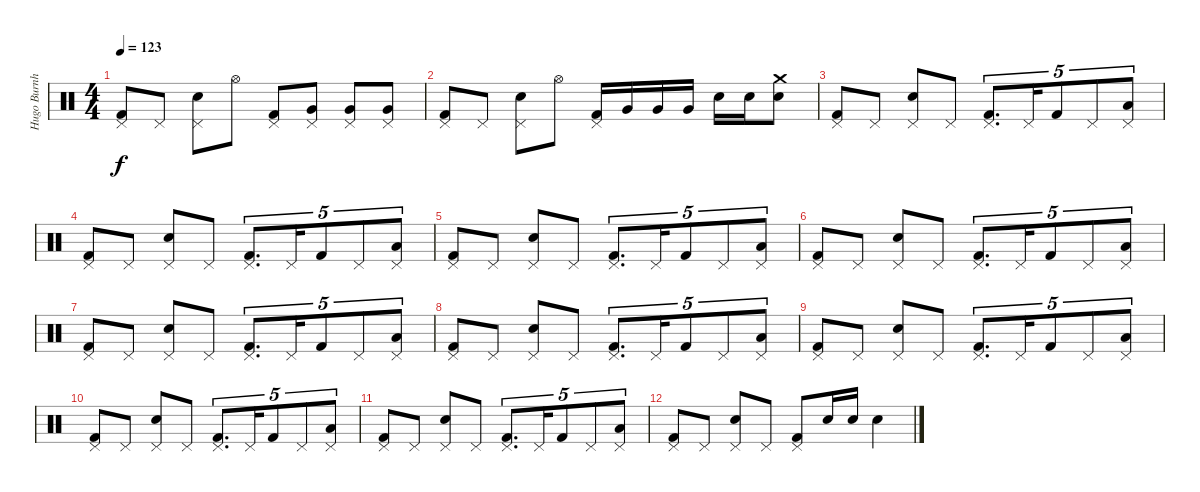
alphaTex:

\track ("Hugo Burnham" "Hugo Burnh") {instrument percussion}
\staff {score}
\articulation defaults
\ts (4 4)
\tempo 123
\clef neutral
\ks c
("Pedal Hi-Hat (hit)" "Kick (hit) 2").8{dy f} "Pedal Hi-Hat (hit)".8 ("Pedal Hi-Hat (hit)" "Electric Snare (hit)").8 "Hi-Hat (open)".8 ("Pedal Hi-Hat (hit)" "Kick (hit) 2").8 ("Pedal Hi-Hat (hit)" "Very Low Tom (hit)").8 ("Pedal Hi-Hat (hit)" "Very Low Tom (hit)").8 ("Pedal Hi-Hat (hit)" "Very Low Tom (hit)").8 |
("Pedal Hi-Hat (hit)" "Kick (hit) 2").8 "Pedal Hi-Hat (hit)".8 ("Pedal Hi-Hat (hit)" "Electric Snare (hit)").8 "Hi-Hat (open)".8 ("Pedal Hi-Hat (hit)" "Kick (hit) 2").16 "Very Low Tom (hit)".16 "Very Low Tom (hit)".16 "Very Low Tom (hit)".16 "Electric Snare (hit)".16 "Electric Snare (hit)".16 ("Crash medium (hit)" "Electric Snare (hit)").8 |
("Pedal Hi-Hat (hit)" "Kick (hit) 2").8 "Pedal Hi-Hat (hit)".8 ("Pedal Hi-Hat (hit)" "Electric Snare (hit)").8 "Pedal Hi-Hat (hit)".8 ("Pedal Hi-Hat (hit)" "Kick (hit) 2").8{d tu (5 4)} "Pedal Hi-Hat (hit)".16{tu (5 4)} "Kick (hit) 2".8{tu (5 4)} "Pedal Hi-Hat (hit)".8{tu (5 4)} ("Pedal Hi-Hat (hit)" "Low Floor Tom (hit)").8{tu (5 4)} |
("Pedal Hi-Hat (hit)" "Kick (hit) 2").8 "Pedal Hi-Hat (hit)".8 ("Pedal Hi-Hat (hit)" "Electric Snare (hit)").8 "Pedal Hi-Hat (hit)".8 ("Pedal Hi-Hat (hit)" "Kick (hit) 2").8{d tu (5 4)} "Pedal Hi-Hat (hit)".16{tu (5 4)} "Kick (hit) 2".8{tu (5 4)} "Pedal Hi-Hat (hit)".8{tu (5 4)} ("Pedal Hi-Hat (hit)" "Low Floor Tom (hit)").8{tu (5 4)} |
("Pedal Hi-Hat (hit)" "Kick (hit) 2").8 "Pedal Hi-Hat (hit)".8 ("Pedal Hi-Hat (hit)" "Electric Snare (hit)").8 "Pedal Hi-Hat (hit)".8 ("Pedal Hi-Hat (hit)" "Kick (hit) 2").8{d tu (5 4)} "Pedal Hi-Hat (hit)".16{tu (5 4)} "Kick (hit) 2".8{tu (5 4)} "Pedal Hi-Hat (hit)".8{tu (5 4)} ("Pedal Hi-Hat (hit)" "Low Floor Tom (hit)").8{tu (5 4)} |
("Pedal Hi-Hat (hit)" "Kick (hit) 2").8 "Pedal Hi-Hat (hit)".8 ("Pedal Hi-Hat (hit)" "Electric Snare (hit)").8 "Pedal Hi-Hat (hit)".8 ("Pedal Hi-Hat (hit)" "Kick (hit) 2").8{d tu (5 4)} "Pedal Hi-Hat (hit)".16{tu (5 4)} "Kick (hit) 2".8{tu (5 4)} "Pedal Hi-Hat (hit)".8{tu (5 4)} ("Pedal Hi-Hat (hit)" "Low Floor Tom (hit)").8{tu (5 4)} |
("Pedal Hi-Hat (hit)" "Kick (hit) 2").8 "Pedal Hi-Hat (hit)".8 ("Pedal Hi-Hat (hit)" "Electric Snare (hit)").8 "Pedal Hi-Hat (hit)".8 ("Pedal Hi-Hat (hit)" "Kick (hit) 2").8{d tu (5 4)} "Pedal Hi-Hat (hit)".16{tu (5 4)} "Kick (hit) 2".8{tu (5 4)} "Pedal Hi-Hat (hit)".8{tu (5 4)} ("Pedal Hi-Hat (hit)" "Low Floor Tom (hit)").8{tu (5 4)} |
("Pedal Hi-Hat (hit)" "Kick (hit) 2").8 "Pedal Hi-Hat (hit)".8 ("Pedal Hi-Hat (hit)" "Electric Snare (hit)").8 "Pedal Hi-Hat (hit)".8 ("Pedal Hi-Hat (hit)" "Kick (hit) 2").8{d tu (5 4)} "Pedal Hi-Hat (hit)".16{tu (5 4)} "Kick (hit) 2".8{tu (5 4)} "Pedal Hi-Hat (hit)".8{tu (5 4)} ("Pedal Hi-Hat (hit)" "Low Floor Tom (hit)").8{tu (5 4)} |
("Pedal Hi-Hat (hit)" "Kick (hit) 2").8 "Pedal Hi-Hat (hit)".8 ("Pedal Hi-Hat (hit)" "Electric Snare (hit)").8 "Pedal Hi-Hat (hit)".8 ("Pedal Hi-Hat (hit)" "Kick (hit) 2").8{d tu (5 4)} "Pedal Hi-Hat (hit)".16{tu (5 4)} "Kick (hit) 2".8{tu (5 4)} "Pedal Hi-Hat (hit)".8{tu (5 4)} ("Pedal Hi-Hat (hit)" "Low Floor Tom (hit)").8{tu (5 4)} |
("Pedal Hi-Hat (hit)" "Kick (hit) 2").8 "Pedal Hi-Hat (hit)".8 ("Pedal Hi-Hat (hit)" "Electric Snare (hit)").8 "Pedal Hi-Hat (hit)".8 ("Pedal Hi-Hat (hit)" "Kick (hit) 2").8{d tu (5 4)} "Pedal Hi-Hat (hit)".16{tu (5 4)} "Kick (hit) 2".8{tu (5 4)} "Pedal Hi-Hat (hit)".8{tu (5 4)} ("Pedal Hi-Hat (hit)" "Low Floor Tom (hit)").8{tu (5 4)} |
("Pedal Hi-Hat (hit)" "Kick (hit) 2").8 "Pedal Hi-Hat (hit)".8 ("Pedal Hi-Hat (hit)" "Electric Snare (hit)").8 "Pedal Hi-Hat (hit)".8 ("Pedal Hi-Hat (hit)" "Kick (hit) 2").8{d tu (5 4)} "Pedal Hi-Hat (hit)".16{tu (5 4)} "Kick (hit) 2".8{tu (5 4)} "Pedal Hi-Hat (hit)".8{tu (5 4)} ("Pedal Hi-Hat (hit)" "Low Floor Tom (hit)").8{tu (5 4)} |
("Pedal Hi-Hat (hit)" "Kick (hit) 2").8 "Pedal Hi-Hat (hit)".8 ("Pedal Hi-Hat (hit)" "Electric Snare (hit)").8 "Pedal Hi-Hat (hit)".8 ("Pedal Hi-Hat (hit)" "Kick (hit) 2").8 "Electric Snare (hit)".16 "Electric Snare (hit)".16 "Electric Snare (hit)".4
